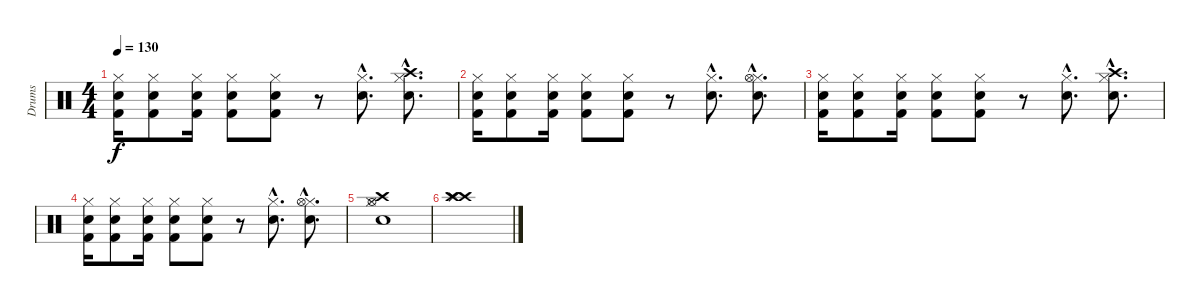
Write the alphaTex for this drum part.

\track ("Drums" "Drums") {instrument percussion}
\staff {score}
\articulation defaults
\ts (4 4)
\tempo 130
\clef neutral
\ks c
("Hi-Hat (closed)" "Snare (hit) 2" "Kick (hit) 2").16{dy f} ("Hi-Hat (closed)" "Snare (hit) 2" "Kick (hit) 2").8 ("Hi-Hat (closed)" "Snare (hit) 2" "Kick (hit) 2").16 ("Hi-Hat (closed)" "Snare (hit) 2" "Kick (hit) 2").8 ("Hi-Hat (closed)" "Snare (hit) 2" "Kick (hit) 2").8 r.8 ("Hi-Hat (closed)"{hac} "Snare (hit) 2"{hac}).8{d} ("Hi-Hat (closed)"{hac} "Crash high (hit)"{hac} "Snare (hit) 2"{hac}).8{d} |
("Hi-Hat (closed)" "Snare (hit) 2" "Kick (hit) 2").16 ("Hi-Hat (closed)" "Snare (hit) 2" "Kick (hit) 2").8 ("Hi-Hat (closed)" "Snare (hit) 2" "Kick (hit) 2").16 ("Hi-Hat (closed)" "Snare (hit) 2" "Kick (hit) 2").8 ("Hi-Hat (closed)" "Snare (hit) 2" "Kick (hit) 2").8 r.8 ("Hi-Hat (closed)"{hac} "Snare (hit) 2"{hac}).8{d} ("Hi-Hat (closed)"{hac} "Hi-Hat (open)"{hac} "Snare (hit) 2"{hac}).8{d} |
("Hi-Hat (closed)" "Snare (hit) 2" "Kick (hit) 2").16 ("Hi-Hat (closed)" "Snare (hit) 2" "Kick (hit) 2").8 ("Hi-Hat (closed)" "Snare (hit) 2" "Kick (hit) 2").16 ("Hi-Hat (closed)" "Snare (hit) 2" "Kick (hit) 2").8 ("Hi-Hat (closed)" "Snare (hit) 2" "Kick (hit) 2").8 r.8 ("Hi-Hat (closed)"{hac} "Snare (hit) 2"{hac}).8{d} ("Hi-Hat (closed)"{hac} "Crash high (hit)"{hac} "Snare (hit) 2"{hac}).8{d} |
("Hi-Hat (closed)" "Snare (hit) 2" "Kick (hit) 2").16 ("Hi-Hat (closed)" "Snare (hit) 2" "Kick (hit) 2").8 ("Hi-Hat (closed)" "Snare (hit) 2" "Kick (hit) 2").16 ("Hi-Hat (closed)" "Snare (hit) 2" "Kick (hit) 2").8 ("Hi-Hat (closed)" "Snare (hit) 2" "Kick (hit) 2").8 r.8 ("Hi-Hat (closed)"{hac} "Snare (hit) 2"{hac}).8{d} ("Hi-Hat (closed)"{hac} "Hi-Hat (open)"{hac} "Snare (hit) 2"{hac}).8{d} |
("Hi-Hat (closed)" "Hi-Hat (open)" "Snare (hit) 2" "Crash high (hit)").1 |
("Crash high (hit)" "Splash (hit)" "Crash high (hit)" "Splash (hit)").1
